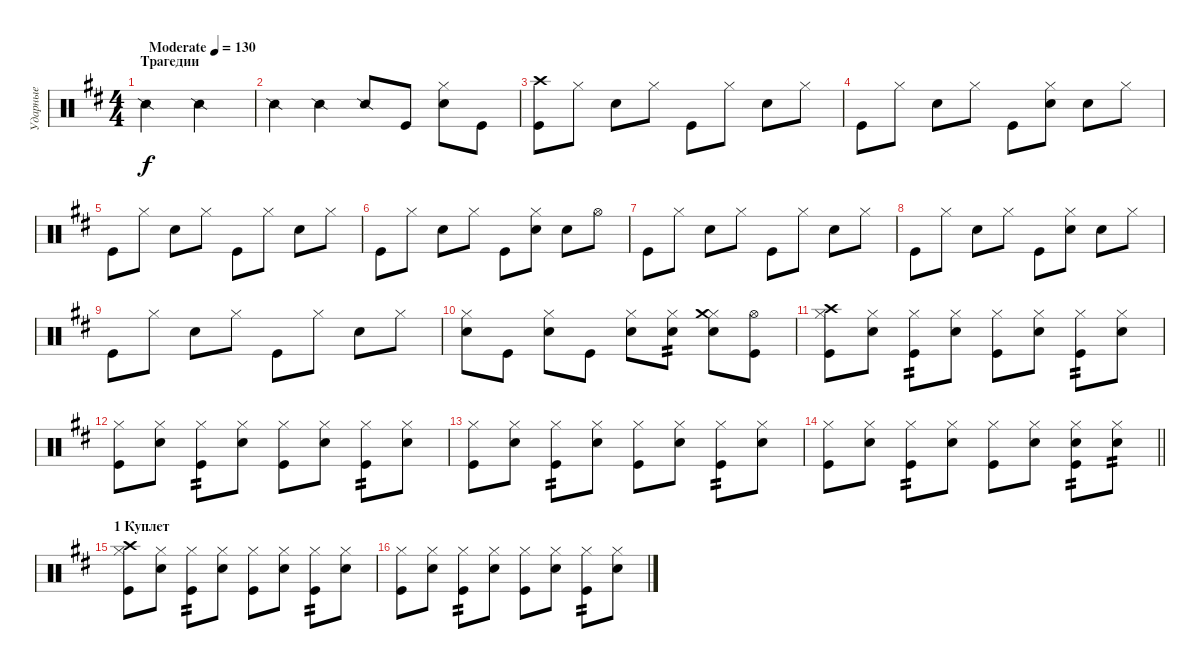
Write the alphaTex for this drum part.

\track ("Ударные" "Ударные") {instrument percussion}
\staff {score}
\articulation defaults
\ts (4 4)
\section ("" "Трагедии")
\tempo (130 "Moderate")
\clef neutral
\ks bminor "Snare (side stick) 2".2{dy f} "Snare (side stick) 2".2
|
"Snare (side stick) 2".4 "Snare (side stick) 2".4 "Snare (side stick) 2".8 "Kick (hit)".8 ("Hi-Hat (closed)" "Electric Snare (hit)").8 "Kick (hit)".8 |
("Crash high (hit)" "Kick (hit)").8 "Hi-Hat (closed)".8 "Electric Snare (hit)".8 "Hi-Hat (closed)".8 "Kick (hit)".8 "Hi-Hat (closed)".8 "Electric Snare (hit)".8 "Hi-Hat (closed)".8 |
"Kick (hit)".8 "Hi-Hat (closed)".8 "Electric Snare (hit)".8 "Hi-Hat (closed)".8 "Kick (hit)".8 ("Hi-Hat (closed)" "Electric Snare (hit)").8 "Electric Snare (hit)".8 "Hi-Hat (closed)".8 |
"Kick (hit)".8 "Hi-Hat (closed)".8 "Electric Snare (hit)".8 "Hi-Hat (closed)".8 "Kick (hit)".8 "Hi-Hat (closed)".8 "Electric Snare (hit)".8 "Hi-Hat (closed)".8 |
"Kick (hit)".8 "Hi-Hat (closed)".8 "Electric Snare (hit)".8 "Hi-Hat (closed)".8 "Kick (hit)".8 ("Hi-Hat (closed)" "Electric Snare (hit)").8 "Electric Snare (hit)".8 "Hi-Hat (open)".8 |
"Kick (hit)".8 "Hi-Hat (closed)".8 "Electric Snare (hit)".8 "Hi-Hat (closed)".8 "Kick (hit)".8 "Hi-Hat (closed)".8 "Electric Snare (hit)".8 "Hi-Hat (closed)".8 |
"Kick (hit)".8 "Hi-Hat (closed)".8 "Electric Snare (hit)".8 "Hi-Hat (closed)".8 "Kick (hit)".8 ("Hi-Hat (closed)" "Electric Snare (hit)").8 "Electric Snare (hit)".8 "Hi-Hat (closed)".8 |
"Kick (hit)".8 "Hi-Hat (closed)".8 "Electric Snare (hit)".8 "Hi-Hat (closed)".8 "Kick (hit)".8 "Hi-Hat (closed)".8 "Electric Snare (hit)".8 "Hi-Hat (closed)".8 |
("Hi-Hat (closed)" "Electric Snare (hit)").8 "Kick (hit)".8 ("Hi-Hat (closed)" "Electric Snare (hit)").8 "Kick (hit)".8 ("Hi-Hat (closed)" "Electric Snare (hit)").8 ("Hi-Hat (closed)" "Electric Snare (hit)").8{tp 2} ("Hi-Hat (closed)" "Crash medium (hit)" "Electric Snare (hit)").8 ("Hi-Hat (open)" "Kick (hit)").8 |
("Hi-Hat (closed)" "Crash high (hit)" "Kick (hit)").8 ("Hi-Hat (closed)" "Electric Snare (hit)").8 ("Hi-Hat (closed)" "Kick (hit)").8{tp 2} ("Hi-Hat (closed)" "Electric Snare (hit)").8 ("Hi-Hat (closed)" "Kick (hit)").8 ("Hi-Hat (closed)" "Electric Snare (hit)").8 ("Hi-Hat (closed)" "Kick (hit)").8{tp 2} ("Hi-Hat (closed)" "Electric Snare (hit)").8 |
("Hi-Hat (closed)" "Kick (hit)").8 ("Hi-Hat (closed)" "Electric Snare (hit)").8 ("Hi-Hat (closed)" "Kick (hit)").8{tp 2} ("Hi-Hat (closed)" "Electric Snare (hit)").8 ("Hi-Hat (closed)" "Kick (hit)").8 ("Hi-Hat (closed)" "Electric Snare (hit)").8 ("Hi-Hat (closed)" "Kick (hit)").8{tp 2} ("Hi-Hat (closed)" "Electric Snare (hit)").8 |
("Hi-Hat (closed)" "Kick (hit)").8 ("Hi-Hat (closed)" "Electric Snare (hit)").8 ("Hi-Hat (closed)" "Kick (hit)").8{tp 2} ("Hi-Hat (closed)" "Electric Snare (hit)").8 ("Hi-Hat (closed)" "Kick (hit)").8 ("Hi-Hat (closed)" "Electric Snare (hit)").8 ("Hi-Hat (closed)" "Kick (hit)").8{tp 2} ("Hi-Hat (closed)" "Electric Snare (hit)").8 |
\barLineRight lightlight
("Hi-Hat (closed)" "Kick (hit)").8 ("Hi-Hat (closed)" "Electric Snare (hit)").8 ("Hi-Hat (closed)" "Kick (hit)").8{tp 2} ("Hi-Hat (closed)" "Electric Snare (hit)").8 ("Hi-Hat (closed)" "Kick (hit)").8 ("Hi-Hat (closed)" "Electric Snare (hit)").8 ("Hi-Hat (closed)" "Electric Snare (hit)" "Kick (hit)").8{tp 2} ("Hi-Hat (closed)" "Electric Snare (hit)").8{tp 2} |
\section ("" "1 Куплет")
("Hi-Hat (closed)" "Crash high (hit)" "Kick (hit)").8 ("Hi-Hat (closed)" "Electric Snare (hit)").8 ("Hi-Hat (closed)" "Kick (hit)").8{tp 2} ("Hi-Hat (closed)" "Electric Snare (hit)").8 ("Hi-Hat (closed)" "Kick (hit)").8 ("Hi-Hat (closed)" "Electric Snare (hit)").8 ("Hi-Hat (closed)" "Kick (hit)").8{tp 2} ("Hi-Hat (closed)" "Electric Snare (hit)").8 |
("Hi-Hat (closed)" "Kick (hit)").8 ("Hi-Hat (closed)" "Electric Snare (hit)").8 ("Hi-Hat (closed)" "Kick (hit)").8{tp 2} ("Hi-Hat (closed)" "Electric Snare (hit)").8 ("Hi-Hat (closed)" "Kick (hit)").8 ("Hi-Hat (closed)" "Electric Snare (hit)").8 ("Hi-Hat (closed)" "Kick (hit)").8{tp 2} ("Hi-Hat (closed)" "Electric Snare (hit)").8
